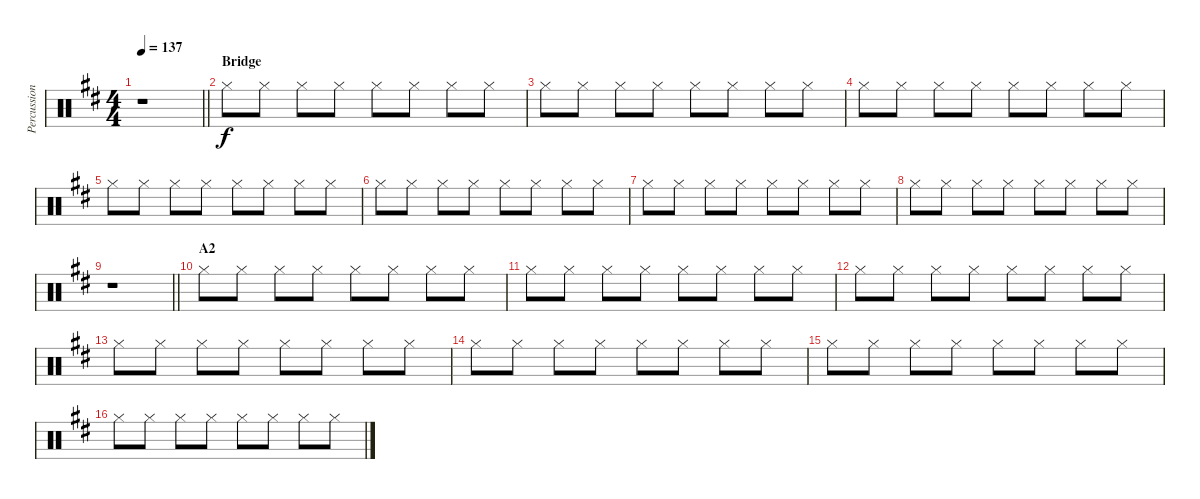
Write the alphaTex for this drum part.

\track ("Percussion" "Percussion") {instrument percussion}
\staff {score}
\articulation defaults
\ts (4 4)
\tempo 137
\clef neutral
\barLineRight lightlight
\ks d
r.1{dy f} |
\section ("" "Bridge")
"Hi-Hat (closed)".8 "Hi-Hat (closed)".8 "Hi-Hat (closed)".8 "Hi-Hat (closed)".8 "Hi-Hat (closed)".8 "Hi-Hat (closed)".8 "Hi-Hat (closed)".8 "Hi-Hat (closed)".8 |
"Hi-Hat (closed)".8 "Hi-Hat (closed)".8 "Hi-Hat (closed)".8 "Hi-Hat (closed)".8 "Hi-Hat (closed)".8 "Hi-Hat (closed)".8 "Hi-Hat (closed)".8 "Hi-Hat (closed)".8 |
"Hi-Hat (closed)".8 "Hi-Hat (closed)".8 "Hi-Hat (closed)".8 "Hi-Hat (closed)".8 "Hi-Hat (closed)".8 "Hi-Hat (closed)".8 "Hi-Hat (closed)".8 "Hi-Hat (closed)".8 |
"Hi-Hat (closed)".8 "Hi-Hat (closed)".8 "Hi-Hat (closed)".8 "Hi-Hat (closed)".8 "Hi-Hat (closed)".8 "Hi-Hat (closed)".8 "Hi-Hat (closed)".8 "Hi-Hat (closed)".8 |
"Hi-Hat (closed)".8 "Hi-Hat (closed)".8 "Hi-Hat (closed)".8 "Hi-Hat (closed)".8 "Hi-Hat (closed)".8 "Hi-Hat (closed)".8 "Hi-Hat (closed)".8 "Hi-Hat (closed)".8 |
"Hi-Hat (closed)".8 "Hi-Hat (closed)".8 "Hi-Hat (closed)".8 "Hi-Hat (closed)".8 "Hi-Hat (closed)".8 "Hi-Hat (closed)".8 "Hi-Hat (closed)".8 "Hi-Hat (closed)".8 |
"Hi-Hat (closed)".8 "Hi-Hat (closed)".8 "Hi-Hat (closed)".8 "Hi-Hat (closed)".8 "Hi-Hat (closed)".8 "Hi-Hat (closed)".8 "Hi-Hat (closed)".8 "Hi-Hat (closed)".8 |
\barLineRight lightlight
r.1 |
\section ("" "A2")
"Hi-Hat (closed)".8 "Hi-Hat (closed)".8 "Hi-Hat (closed)".8 "Hi-Hat (closed)".8 "Hi-Hat (closed)".8 "Hi-Hat (closed)".8 "Hi-Hat (closed)".8 "Hi-Hat (closed)".8 |
"Hi-Hat (closed)".8 "Hi-Hat (closed)".8 "Hi-Hat (closed)".8 "Hi-Hat (closed)".8 "Hi-Hat (closed)".8 "Hi-Hat (closed)".8 "Hi-Hat (closed)".8 "Hi-Hat (closed)".8 |
"Hi-Hat (closed)".8 "Hi-Hat (closed)".8 "Hi-Hat (closed)".8 "Hi-Hat (closed)".8 "Hi-Hat (closed)".8 "Hi-Hat (closed)".8 "Hi-Hat (closed)".8 "Hi-Hat (closed)".8 |
"Hi-Hat (closed)".8 "Hi-Hat (closed)".8 "Hi-Hat (closed)".8 "Hi-Hat (closed)".8 "Hi-Hat (closed)".8 "Hi-Hat (closed)".8 "Hi-Hat (closed)".8 "Hi-Hat (closed)".8 |
"Hi-Hat (closed)".8 "Hi-Hat (closed)".8 "Hi-Hat (closed)".8 "Hi-Hat (closed)".8 "Hi-Hat (closed)".8 "Hi-Hat (closed)".8 "Hi-Hat (closed)".8 "Hi-Hat (closed)".8 |
"Hi-Hat (closed)".8 "Hi-Hat (closed)".8 "Hi-Hat (closed)".8 "Hi-Hat (closed)".8 "Hi-Hat (closed)".8 "Hi-Hat (closed)".8 "Hi-Hat (closed)".8 "Hi-Hat (closed)".8 |
"Hi-Hat (closed)".8 "Hi-Hat (closed)".8 "Hi-Hat (closed)".8 "Hi-Hat (closed)".8 "Hi-Hat (closed)".8 "Hi-Hat (closed)".8 "Hi-Hat (closed)".8 "Hi-Hat (closed)".8
